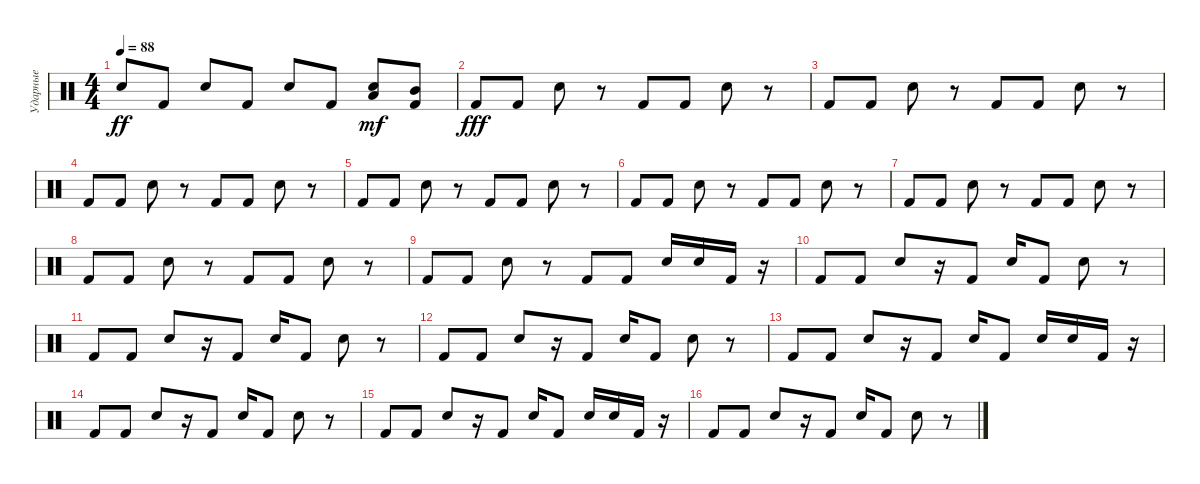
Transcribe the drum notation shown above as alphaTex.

\track ("Ударные" "Ударные") {instrument percussion}
\staff {score}
\articulation defaults
\ts (4 4)
\tempo 88
\clef neutral
\ks c "Electric Snare (hit)".8{dy ff} "Kick (hit) 2".8 "Electric Snare (hit)".8 "Kick (hit) 2".8 "Electric Snare (hit)".8 "Kick (hit) 2".8
("Electric Snare (hit)" "Low Tom (hit)").8{dy mf} ("Kick (hit) 2" "Mid Tom (hit)").8 |
"Kick (hit) 2".8{dy fff} "Kick (hit) 2".8 "Electric Snare (hit)".8 r.8 "Kick (hit) 2".8 "Kick (hit) 2".8 "Electric Snare (hit)".8 r.8 |
"Kick (hit) 2".8 "Kick (hit) 2".8 "Electric Snare (hit)".8 r.8 "Kick (hit) 2".8 "Kick (hit) 2".8 "Electric Snare (hit)".8 r.8 |
"Kick (hit) 2".8 "Kick (hit) 2".8 "Electric Snare (hit)".8 r.8 "Kick (hit) 2".8 "Kick (hit) 2".8 "Electric Snare (hit)".8 r.8 |
"Kick (hit) 2".8 "Kick (hit) 2".8 "Electric Snare (hit)".8 r.8 "Kick (hit) 2".8 "Kick (hit) 2".8 "Electric Snare (hit)".8 r.8 |
"Kick (hit) 2".8 "Kick (hit) 2".8 "Electric Snare (hit)".8 r.8 "Kick (hit) 2".8 "Kick (hit) 2".8 "Electric Snare (hit)".8 r.8 |
"Kick (hit) 2".8 "Kick (hit) 2".8 "Electric Snare (hit)".8 r.8 "Kick (hit) 2".8 "Kick (hit) 2".8 "Electric Snare (hit)".8 r.8 |
"Kick (hit) 2".8 "Kick (hit) 2".8 "Electric Snare (hit)".8 r.8 "Kick (hit) 2".8 "Kick (hit) 2".8 "Electric Snare (hit)".8 r.8 |
"Kick (hit) 2".8 "Kick (hit) 2".8 "Electric Snare (hit)".8 r.8 "Kick (hit) 2".8 "Kick (hit) 2".8 "Electric Snare (hit)".16 "Electric Snare (hit)".16 "Kick (hit) 2".16 r.16 |
"Kick (hit) 2".8 "Kick (hit) 2".8 "Electric Snare (hit)".8 r.16 "Kick (hit) 2".8 "Electric Snare (hit)".16 "Kick (hit) 2".8 "Electric Snare (hit)".8 r.8 |
"Kick (hit) 2".8 "Kick (hit) 2".8 "Electric Snare (hit)".8 r.16 "Kick (hit) 2".8 "Electric Snare (hit)".16 "Kick (hit) 2".8 "Electric Snare (hit)".8 r.8 |
"Kick (hit) 2".8 "Kick (hit) 2".8 "Electric Snare (hit)".8 r.16 "Kick (hit) 2".8 "Electric Snare (hit)".16 "Kick (hit) 2".8 "Electric Snare (hit)".8 r.8 |
"Kick (hit) 2".8 "Kick (hit) 2".8 "Electric Snare (hit)".8 r.16 "Kick (hit) 2".8 "Electric Snare (hit)".16 "Kick (hit) 2".8 "Electric Snare (hit)".16 "Electric Snare (hit)".16 "Kick (hit) 2".16 r.16 |
"Kick (hit) 2".8 "Kick (hit) 2".8 "Electric Snare (hit)".8 r.16 "Kick (hit) 2".8 "Electric Snare (hit)".16 "Kick (hit) 2".8 "Electric Snare (hit)".8 r.8 |
"Kick (hit) 2".8 "Kick (hit) 2".8 "Electric Snare (hit)".8 r.16 "Kick (hit) 2".8 "Electric Snare (hit)".16 "Kick (hit) 2".8 "Electric Snare (hit)".16 "Electric Snare (hit)".16 "Kick (hit) 2".16 r.16 |
"Kick (hit) 2".8 "Kick (hit) 2".8 "Electric Snare (hit)".8 r.16 "Kick (hit) 2".8 "Electric Snare (hit)".16 "Kick (hit) 2".8 "Electric Snare (hit)".8 r.8
